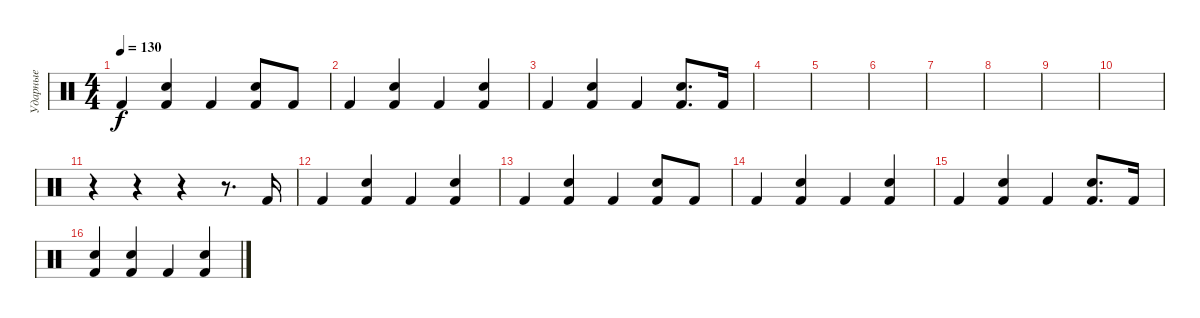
\track ("Ударные" "Ударные") {instrument percussion}
\staff {score}
\articulation defaults
\ts (4 4)
\tempo 130
\clef neutral
\ks c "Kick (hit) 2".4{dy f}
("Hand Clap (hit)" "Kick (hit) 2").4 "Kick (hit) 2".4 ("Hand Clap (hit)" "Kick (hit) 2").8 "Kick (hit) 2".8 |
"Kick (hit) 2".4 ("Hand Clap (hit)" "Kick (hit) 2").4 "Kick (hit) 2".4 ("Hand Clap (hit)" "Kick (hit) 2").4 |
"Kick (hit) 2".4 ("Hand Clap (hit)" "Kick (hit) 2").4 "Kick (hit) 2".4 ("Hand Clap (hit)" "Kick (hit) 2").8{d} "Kick (hit) 2".16 |
|
|
|
|
|
|
|
r.4 r.4 r.4 r.8{d} "Kick (hit) 2".16 |
"Kick (hit) 2".4 ("Hand Clap (hit)" "Kick (hit) 2").4 "Kick (hit) 2".4 ("Hand Clap (hit)" "Kick (hit) 2").4 |
"Kick (hit) 2".4 ("Hand Clap (hit)" "Kick (hit) 2").4 "Kick (hit) 2".4 ("Hand Clap (hit)" "Kick (hit) 2").8 "Kick (hit) 2".8 |
"Kick (hit) 2".4 ("Hand Clap (hit)" "Kick (hit) 2").4 "Kick (hit) 2".4 ("Hand Clap (hit)" "Kick (hit) 2").4 |
"Kick (hit) 2".4 ("Hand Clap (hit)" "Kick (hit) 2").4 "Kick (hit) 2".4 ("Hand Clap (hit)" "Kick (hit) 2").8{d} "Kick (hit) 2".16 |
("Hand Clap (hit)" "Kick (hit) 2").4 ("Hand Clap (hit)" "Kick (hit) 2").4 "Kick (hit) 2".4 ("Hand Clap (hit)" "Kick (hit) 2").4
